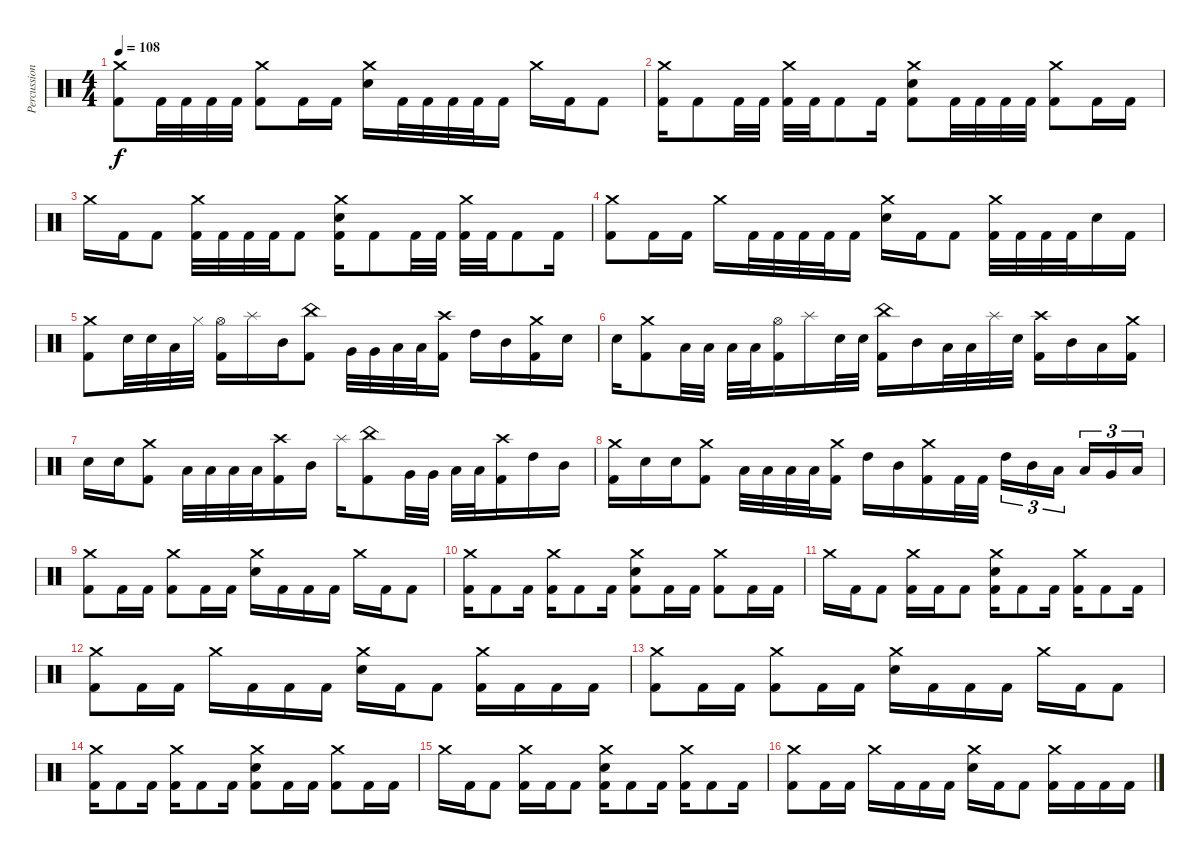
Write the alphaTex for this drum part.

\track ("Percussion" "Percussion") {instrument percussion}
\staff {score}
\articulation defaults
\ts (4 4)
\tempo 108
\clef neutral
\ks c
("Crash medium (hit)" "Kick (hit) 2").8{dy f} "Kick (hit) 2".32 "Kick (hit) 2".32 "Kick (hit) 2".32 "Kick (hit) 2".32 ("Crash medium (hit)" "Kick (hit) 2").8 "Kick (hit) 2".16 "Kick (hit) 2".16 ("Crash medium (hit)" "Electric Snare (hit)").16 "Kick (hit) 2".32 "Kick (hit) 2".32 "Kick (hit) 2".32 "Kick (hit) 2".32 "Kick (hit) 2".16 "Crash medium (hit)".16 "Kick (hit) 2".16 "Kick (hit) 2".8 |
("Crash medium (hit)" "Kick (hit) 2").16 "Kick (hit) 2".8 "Kick (hit) 2".32 "Kick (hit) 2".32 ("Crash medium (hit)" "Kick (hit) 2").32 "Kick (hit) 2".32 "Kick (hit) 2".8 "Kick (hit) 2".16 ("Crash medium (hit)" "Electric Snare (hit)" "Kick (hit) 2").8 "Kick (hit) 2".32 "Kick (hit) 2".32 "Kick (hit) 2".32 "Kick (hit) 2".32 ("Crash medium (hit)" "Kick (hit) 2").8 "Kick (hit) 2".16 "Kick (hit) 2".16 |
"Crash medium (hit)".16 "Kick (hit) 2".16 "Kick (hit) 2".8 ("Crash medium (hit)" "Kick (hit) 2").32 "Kick (hit) 2".32 "Kick (hit) 2".32 "Kick (hit) 2".32 "Kick (hit) 2".8 ("Crash medium (hit)" "Electric Snare (hit)" "Kick (hit) 2").16 "Kick (hit) 2".8 "Kick (hit) 2".32 "Kick (hit) 2".32 ("Crash medium (hit)" "Kick (hit) 2").32 "Kick (hit) 2".32 "Kick (hit) 2".8 "Kick (hit) 2".16 |
("Crash medium (hit)" "Kick (hit) 2").8 "Kick (hit) 2".16 "Kick (hit) 2".16 "Crash medium (hit)".16 "Kick (hit) 2".32 "Kick (hit) 2".32 "Kick (hit) 2".32 "Kick (hit) 2".32 "Kick (hit) 2".16 ("Crash medium (hit)" "Electric Snare (hit)").16 "Kick (hit) 2".16 "Kick (hit) 2".8 ("Crash medium (hit)" "Kick (hit) 2").32 "Kick (hit) 2".32 "Kick (hit) 2".32 "Kick (hit) 2".32 "Electric Snare (hit)".16 "Kick (hit) 2".16 |
("Crash medium (hit)" "Kick (hit) 2").8 "Electric Snare (hit)".32 "Electric Snare (hit)".32 "Low Tom (hit)".32 "Hi-Hat (closed)".32 ("Hi-Hat (open)" "Kick (hit) 2").16 "Splash (hit)".16 "Mid Tom (hit)".16 ("China (hit)" "Kick (hit) 2").8 "Very Low Tom (hit)".32 "Very Low Tom (hit)".32 "Low Floor Tom (hit)".32 "Low Floor Tom (hit)".32 ("Crash high (hit)" "Kick (hit) 2").16 "High Tom (hit)".16 "Mid Tom (hit)".16 ("Crash medium (hit)" "Kick (hit) 2").16 "Electric Snare (hit)".16 |
"Electric Snare (hit)".16 ("Crash medium (hit)" "Kick (hit) 2").8 "Low Floor Tom (hit)".32 "Low Floor Tom (hit)".32 "Low Floor Tom (hit)".32 "Low Floor Tom (hit)".32 ("Hi-Hat (open)" "Kick (hit) 2").16 "Splash (hit)".16 "Electric Snare (hit)".32 "Electric Snare (hit)".32 ("China (hit)" "Kick (hit) 2").16 "Mid Tom (hit)".16 "Low Tom (hit)".32 "Low Tom (hit)".32 "Splash (hit)".32 "Electric Snare (hit)".32 ("Crash high (hit)" "Kick (hit) 2").16 "Mid Tom (hit)".16 "Low Tom (hit)".16 ("Crash medium (hit)" "Kick (hit) 2").16 |
"Electric Snare (hit)".16 "Electric Snare (hit)".16 ("Crash medium (hit)" "Kick (hit) 2").8 "Low Floor Tom (hit)".32 "Low Floor Tom (hit)".32 "Low Floor Tom (hit)".32 "Low Floor Tom (hit)".32 ("Crash high (hit)" "Kick (hit) 2").16 "Mid Tom (hit)".16 "Splash (hit)".16 ("China (hit)" "Kick (hit) 2").8 "Very Low Tom (hit)".32 "Very Low Tom (hit)".32 "Low Floor Tom (hit)".32 "Low Floor Tom (hit)".32 ("Crash high (hit)" "Kick (hit) 2").16 "High Tom (hit)".16 "Mid Tom (hit)".16 |
("Crash medium (hit)" "Kick (hit) 2").16 "Electric Snare (hit)".16 "Electric Snare (hit)".16 ("Crash medium (hit)" "Kick (hit) 2").8 "Low Floor Tom (hit)".32 "Low Floor Tom (hit)".32 "Low Floor Tom (hit)".32 "Low Floor Tom (hit)".32 ("Crash medium (hit)" "Kick (hit) 2").16 "High Tom (hit)".16 "Mid Tom (hit)".16 ("Crash medium (hit)" "Kick (hit) 2").16 "Kick (hit) 2".32 "Kick (hit) 2".32 "High Tom (hit)".16{tu (3 2)} "Mid Tom (hit)".16{tu (3 2)} "Low Tom (hit)".16{tu (3 2) beam splitsecondary} "Low Tom (hit)".16{tu (3 2)} "Very Low Tom (hit)".16{tu (3 2)} "Low Floor Tom (hit)".16{tu (3 2)} |
("Crash medium (hit)" "Kick (hit) 2").8 "Kick (hit) 2".16 "Kick (hit) 2".16 ("Crash medium (hit)" "Kick (hit) 2").8 "Kick (hit) 2".16 "Kick (hit) 2".16 ("Crash medium (hit)" "Electric Snare (hit)").16 "Kick (hit) 2".16 "Kick (hit) 2".16 "Kick (hit) 2".16 "Crash medium (hit)".16 "Kick (hit) 2".16 "Kick (hit) 2".8 |
("Crash medium (hit)" "Kick (hit) 2").16 "Kick (hit) 2".8 "Kick (hit) 2".16 ("Crash medium (hit)" "Kick (hit) 2").16 "Kick (hit) 2".8 "Kick (hit) 2".16 ("Crash medium (hit)" "Electric Snare (hit)" "Kick (hit) 2").8 "Kick (hit) 2".16 "Kick (hit) 2".16 ("Crash medium (hit)" "Kick (hit) 2").8 "Kick (hit) 2".16 "Kick (hit) 2".16 |
"Crash medium (hit)".16 "Kick (hit) 2".16 "Kick (hit) 2".8 ("Crash medium (hit)" "Kick (hit) 2").16 "Kick (hit) 2".16 "Kick (hit) 2".8 ("Crash medium (hit)" "Electric Snare (hit)" "Kick (hit) 2").16 "Kick (hit) 2".8 "Kick (hit) 2".16 ("Crash medium (hit)" "Kick (hit) 2").16 "Kick (hit) 2".8 "Kick (hit) 2".16 |
("Crash medium (hit)" "Kick (hit) 2").8 "Kick (hit) 2".16 "Kick (hit) 2".16 "Crash medium (hit)".16 "Kick (hit) 2".16 "Kick (hit) 2".16 "Kick (hit) 2".16 ("Crash medium (hit)" "Electric Snare (hit)").16 "Kick (hit) 2".16 "Kick (hit) 2".8 ("Crash medium (hit)" "Kick (hit) 2").16 "Kick (hit) 2".16 "Kick (hit) 2".16 "Kick (hit) 2".16 |
("Crash medium (hit)" "Kick (hit) 2").8 "Kick (hit) 2".16 "Kick (hit) 2".16 ("Crash medium (hit)" "Kick (hit) 2").8 "Kick (hit) 2".16 "Kick (hit) 2".16 ("Crash medium (hit)" "Electric Snare (hit)").16 "Kick (hit) 2".16 "Kick (hit) 2".16 "Kick (hit) 2".16 "Crash medium (hit)".16 "Kick (hit) 2".16 "Kick (hit) 2".8 |
("Crash medium (hit)" "Kick (hit) 2").16 "Kick (hit) 2".8 "Kick (hit) 2".16 ("Crash medium (hit)" "Kick (hit) 2").16 "Kick (hit) 2".8 "Kick (hit) 2".16 ("Crash medium (hit)" "Electric Snare (hit)" "Kick (hit) 2").8 "Kick (hit) 2".16 "Kick (hit) 2".16 ("Crash medium (hit)" "Kick (hit) 2").8 "Kick (hit) 2".16 "Kick (hit) 2".16 |
"Crash medium (hit)".16 "Kick (hit) 2".16 "Kick (hit) 2".8 ("Crash medium (hit)" "Kick (hit) 2").16 "Kick (hit) 2".16 "Kick (hit) 2".8 ("Crash medium (hit)" "Electric Snare (hit)" "Kick (hit) 2").16 "Kick (hit) 2".8 "Kick (hit) 2".16 ("Crash medium (hit)" "Kick (hit) 2").16 "Kick (hit) 2".8 "Kick (hit) 2".16 |
("Crash medium (hit)" "Kick (hit) 2").8 "Kick (hit) 2".16 "Kick (hit) 2".16 "Crash medium (hit)".16 "Kick (hit) 2".16 "Kick (hit) 2".16 "Kick (hit) 2".16 ("Crash medium (hit)" "Electric Snare (hit)").16 "Kick (hit) 2".16 "Kick (hit) 2".8 ("Crash medium (hit)" "Kick (hit) 2").16 "Kick (hit) 2".16 "Kick (hit) 2".16 "Kick (hit) 2".16
